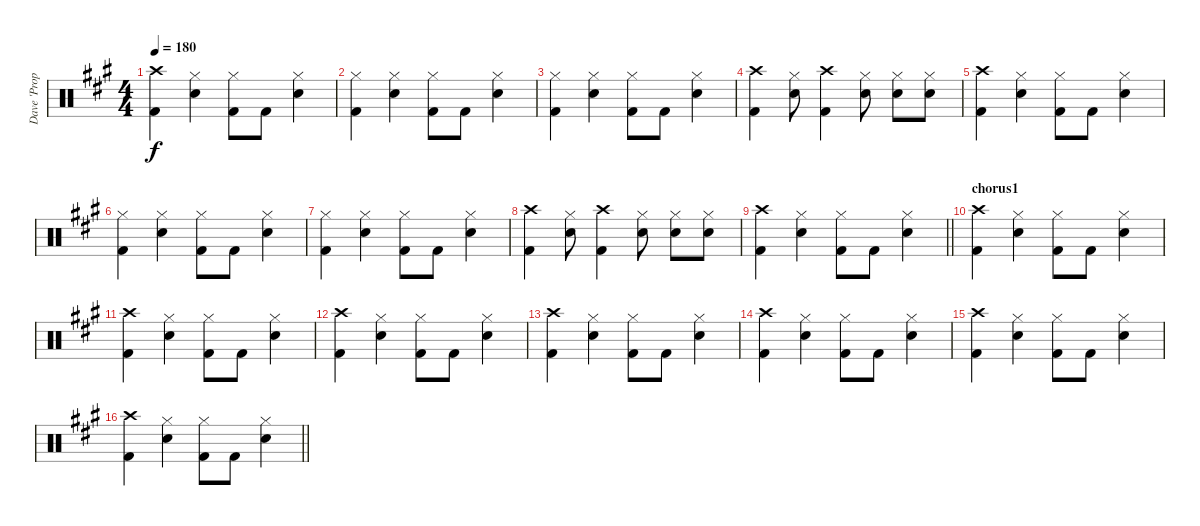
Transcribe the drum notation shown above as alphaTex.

\track ("Dave 'Proper' Caution" "Dave 'Prop") {instrument percussion}
\staff {score}
\articulation defaults
\ts (4 4)
\tempo 180
\clef neutral
\ks a
("Crash high (hit)" "Kick (hit) 2").4{dy f} ("Hi-Hat (closed)" "Electric Snare (hit)").4 ("Hi-Hat (closed)" "Kick (hit) 2").8 "Kick (hit) 2".8 ("Hi-Hat (closed)" "Electric Snare (hit)").4 |
("Hi-Hat (closed)" "Kick (hit) 2").4 ("Hi-Hat (closed)" "Electric Snare (hit)").4 ("Hi-Hat (closed)" "Kick (hit) 2").8 "Kick (hit) 2".8 ("Hi-Hat (closed)" "Electric Snare (hit)").4 |
("Hi-Hat (closed)" "Kick (hit) 2").4 ("Hi-Hat (closed)" "Electric Snare (hit)").4 ("Hi-Hat (closed)" "Kick (hit) 2").8 "Kick (hit) 2".8 ("Hi-Hat (closed)" "Electric Snare (hit)").4 |
("Crash high (hit)" "Kick (hit) 2").4 ("Hi-Hat (closed)" "Electric Snare (hit)").8 ("Crash high (hit)" "Kick (hit) 2").4 ("Hi-Hat (closed)" "Electric Snare (hit)").8 ("Hi-Hat (closed)" "Electric Snare (hit)").8 ("Hi-Hat (closed)" "Electric Snare (hit)").8 |
("Crash high (hit)" "Kick (hit) 2").4 ("Hi-Hat (closed)" "Electric Snare (hit)").4 ("Hi-Hat (closed)" "Kick (hit) 2").8 "Kick (hit) 2".8 ("Hi-Hat (closed)" "Electric Snare (hit)").4 |
("Hi-Hat (closed)" "Kick (hit) 2").4 ("Hi-Hat (closed)" "Electric Snare (hit)").4 ("Hi-Hat (closed)" "Kick (hit) 2").8 "Kick (hit) 2".8 ("Hi-Hat (closed)" "Electric Snare (hit)").4 |
("Hi-Hat (closed)" "Kick (hit) 2").4 ("Hi-Hat (closed)" "Electric Snare (hit)").4 ("Hi-Hat (closed)" "Kick (hit) 2").8 "Kick (hit) 2".8 ("Hi-Hat (closed)" "Electric Snare (hit)").4 |
("Crash high (hit)" "Kick (hit) 2").4 ("Hi-Hat (closed)" "Electric Snare (hit)").8 ("Crash high (hit)" "Kick (hit) 2").4 ("Hi-Hat (closed)" "Electric Snare (hit)").8 ("Hi-Hat (closed)" "Electric Snare (hit)").8 ("Hi-Hat (closed)" "Electric Snare (hit)").8 |
\barLineRight lightlight
("Crash high (hit)" "Kick (hit) 2").4 ("Hi-Hat (closed)" "Electric Snare (hit)").4 ("Hi-Hat (closed)" "Kick (hit) 2").8 "Kick (hit) 2".8 ("Hi-Hat (closed)" "Electric Snare (hit)").4 |
\section ("" "chorus1")
("Crash high (hit)" "Kick (hit) 2").4 ("Hi-Hat (closed)" "Electric Snare (hit)").4 ("Hi-Hat (closed)" "Kick (hit) 2").8 "Kick (hit) 2".8 ("Hi-Hat (closed)" "Electric Snare (hit)").4 |
("Crash high (hit)" "Kick (hit) 2").4 ("Hi-Hat (closed)" "Electric Snare (hit)").4 ("Hi-Hat (closed)" "Kick (hit) 2").8 "Kick (hit) 2".8 ("Hi-Hat (closed)" "Electric Snare (hit)").4 |
("Crash high (hit)" "Kick (hit) 2").4 ("Hi-Hat (closed)" "Electric Snare (hit)").4 ("Hi-Hat (closed)" "Kick (hit) 2").8 "Kick (hit) 2".8 ("Hi-Hat (closed)" "Electric Snare (hit)").4 |
("Crash high (hit)" "Kick (hit) 2").4 ("Hi-Hat (closed)" "Electric Snare (hit)").4 ("Hi-Hat (closed)" "Kick (hit) 2").8 "Kick (hit) 2".8 ("Hi-Hat (closed)" "Electric Snare (hit)").4 |
("Crash high (hit)" "Kick (hit) 2").4 ("Hi-Hat (closed)" "Electric Snare (hit)").4 ("Hi-Hat (closed)" "Kick (hit) 2").8 "Kick (hit) 2".8 ("Hi-Hat (closed)" "Electric Snare (hit)").4 |
("Crash high (hit)" "Kick (hit) 2").4 ("Hi-Hat (closed)" "Electric Snare (hit)").4 ("Hi-Hat (closed)" "Kick (hit) 2").8 "Kick (hit) 2".8 ("Hi-Hat (closed)" "Electric Snare (hit)").4 |
\barLineRight lightlight
("Crash high (hit)" "Kick (hit) 2").4 ("Hi-Hat (closed)" "Electric Snare (hit)").4 ("Hi-Hat (closed)" "Kick (hit) 2").8 "Kick (hit) 2".8 ("Hi-Hat (closed)" "Electric Snare (hit)").4
